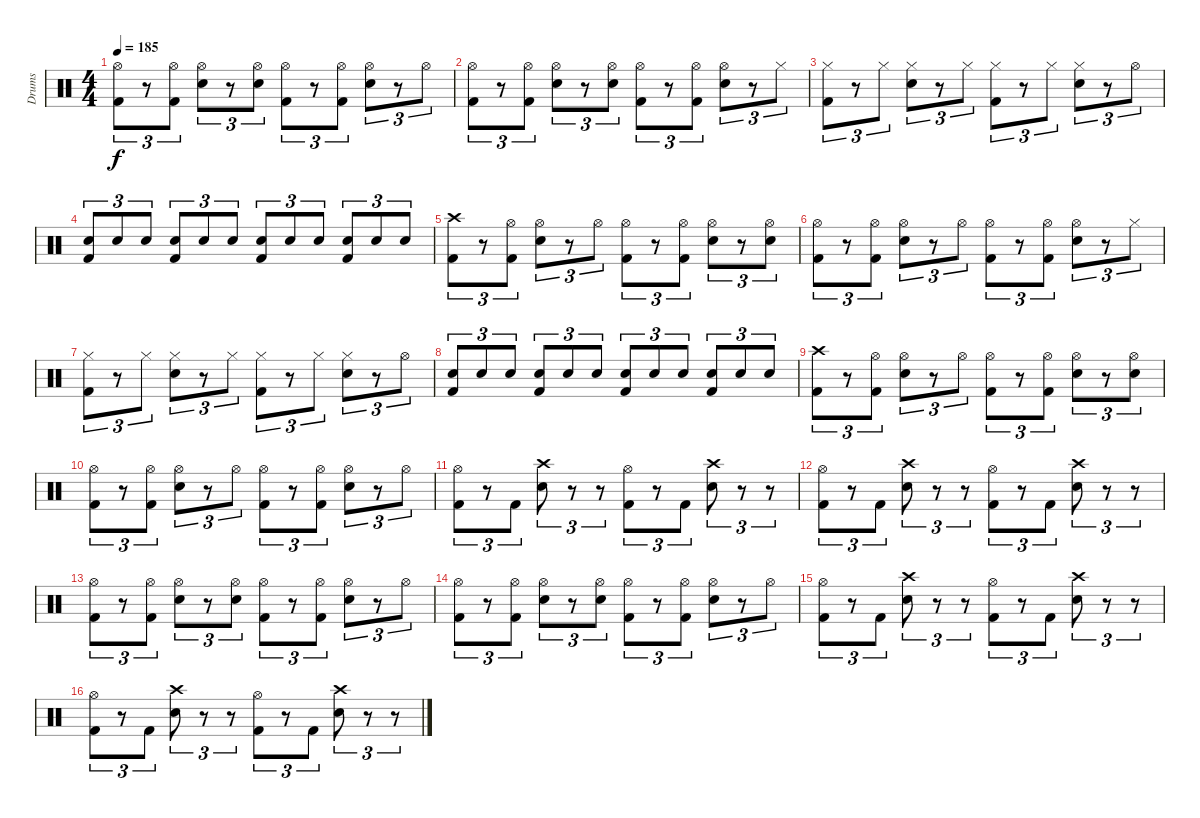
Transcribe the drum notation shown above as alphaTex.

\track ("Drums" "Drums") {instrument percussion}
\staff {score}
\articulation defaults
\ts (4 4)
\tempo 185
\clef neutral
\ks c
("Hi-Hat (open)" "Kick (hit) 2").8{tu (3 2) dy f} r.8{tu (3 2)} ("Hi-Hat (open)" "Kick (hit) 2").8{tu (3 2)} ("Hi-Hat (open)" "Electric Snare (hit)").8{tu (3 2)} r.8{tu (3 2)} ("Hi-Hat (open)" "Electric Snare (hit)").8{tu (3 2)} ("Hi-Hat (open)" "Kick (hit) 2").8{tu (3 2)} r.8{tu (3 2)} ("Hi-Hat (open)" "Kick (hit) 2").8{tu (3 2)} ("Hi-Hat (open)" "Electric Snare (hit)").8{tu (3 2)} r.8{tu (3 2)} "Hi-Hat (open)".8{tu (3 2)} |
("Hi-Hat (open)" "Kick (hit) 2").8{tu (3 2)} r.8{tu (3 2)} ("Hi-Hat (open)" "Kick (hit) 2").8{tu (3 2)} ("Hi-Hat (open)" "Electric Snare (hit)").8{tu (3 2)} r.8{tu (3 2)} ("Hi-Hat (open)" "Electric Snare (hit)").8{tu (3 2)} ("Hi-Hat (open)" "Kick (hit) 2").8{tu (3 2)} r.8{tu (3 2)} ("Hi-Hat (open)" "Kick (hit) 2").8{tu (3 2)} ("Hi-Hat (open)" "Electric Snare (hit)").8{tu (3 2)} r.8{tu (3 2)} "Hi-Hat (closed)".8{tu (3 2)} |
("Hi-Hat (closed)" "Kick (hit) 2").8{tu (3 2)} r.8{tu (3 2)} "Hi-Hat (closed)".8{tu (3 2)} ("Hi-Hat (closed)" "Electric Snare (hit)").8{tu (3 2)} r.8{tu (3 2)} "Hi-Hat (closed)".8{tu (3 2)} ("Hi-Hat (closed)" "Kick (hit) 2").8{tu (3 2)} r.8{tu (3 2)} "Hi-Hat (closed)".8{tu (3 2)} ("Hi-Hat (closed)" "Electric Snare (hit)").8{tu (3 2)} r.8{tu (3 2)} "Hi-Hat (open)".8{tu (3 2)} |
("Electric Snare (hit)" "Kick (hit) 2").8{tu (3 2)} "Electric Snare (hit)".8{tu (3 2)} "Electric Snare (hit)".8{tu (3 2)} ("Electric Snare (hit)" "Kick (hit) 2").8{tu (3 2)} "Electric Snare (hit)".8{tu (3 2)} "Electric Snare (hit)".8{tu (3 2)} ("Electric Snare (hit)" "Kick (hit) 2").8{tu (3 2)} "Electric Snare (hit)".8{tu (3 2)} "Electric Snare (hit)".8{tu (3 2)} ("Electric Snare (hit)" "Kick (hit) 2").8{tu (3 2)} "Electric Snare (hit)".8{tu (3 2)} "Electric Snare (hit)".8{tu (3 2)} |
("Crash high (hit)" "Kick (hit) 2").8{tu (3 2)} r.8{tu (3 2)} ("Hi-Hat (open)" "Kick (hit) 2").8{tu (3 2)} ("Hi-Hat (open)" "Electric Snare (hit)").8{tu (3 2)} r.8{tu (3 2)} "Hi-Hat (open)".8{tu (3 2)} ("Hi-Hat (open)" "Kick (hit) 2").8{tu (3 2)} r.8{tu (3 2)} ("Hi-Hat (open)" "Kick (hit) 2").8{tu (3 2)} ("Hi-Hat (open)" "Electric Snare (hit)").8{tu (3 2)} r.8{tu (3 2)} ("Hi-Hat (open)" "Electric Snare (hit)").8{tu (3 2)} |
("Hi-Hat (open)" "Kick (hit) 2").8{tu (3 2)} r.8{tu (3 2)} ("Hi-Hat (open)" "Kick (hit) 2").8{tu (3 2)} ("Hi-Hat (open)" "Electric Snare (hit)").8{tu (3 2)} r.8{tu (3 2)} "Hi-Hat (open)".8{tu (3 2)} ("Hi-Hat (open)" "Kick (hit) 2").8{tu (3 2)} r.8{tu (3 2)} ("Hi-Hat (open)" "Kick (hit) 2").8{tu (3 2)} ("Hi-Hat (open)" "Electric Snare (hit)").8{tu (3 2)} r.8{tu (3 2)} "Hi-Hat (closed)".8{tu (3 2)} |
("Hi-Hat (closed)" "Kick (hit) 2").8{tu (3 2)} r.8{tu (3 2)} "Hi-Hat (closed)".8{tu (3 2)} ("Hi-Hat (closed)" "Electric Snare (hit)").8{tu (3 2)} r.8{tu (3 2)} "Hi-Hat (closed)".8{tu (3 2)} ("Hi-Hat (closed)" "Kick (hit) 2").8{tu (3 2)} r.8{tu (3 2)} "Hi-Hat (closed)".8{tu (3 2)} ("Hi-Hat (closed)" "Electric Snare (hit)").8{tu (3 2)} r.8{tu (3 2)} "Hi-Hat (open)".8{tu (3 2)} |
("Electric Snare (hit)" "Kick (hit) 2").8{tu (3 2)} "Electric Snare (hit)".8{tu (3 2)} "Electric Snare (hit)".8{tu (3 2)} ("Electric Snare (hit)" "Kick (hit) 2").8{tu (3 2)} "Electric Snare (hit)".8{tu (3 2)} "Electric Snare (hit)".8{tu (3 2)} ("Electric Snare (hit)" "Kick (hit) 2").8{tu (3 2)} "Electric Snare (hit)".8{tu (3 2)} "Electric Snare (hit)".8{tu (3 2)} ("Electric Snare (hit)" "Kick (hit) 2").8{tu (3 2)} "Electric Snare (hit)".8{tu (3 2)} "Electric Snare (hit)".8{tu (3 2)} |
("Crash high (hit)" "Kick (hit) 2").8{tu (3 2)} r.8{tu (3 2)} ("Hi-Hat (open)" "Kick (hit) 2").8{tu (3 2)} ("Hi-Hat (open)" "Electric Snare (hit)").8{tu (3 2)} r.8{tu (3 2)} "Hi-Hat (open)".8{tu (3 2)} ("Hi-Hat (open)" "Kick (hit) 2").8{tu (3 2)} r.8{tu (3 2)} ("Hi-Hat (open)" "Kick (hit) 2").8{tu (3 2)} ("Hi-Hat (open)" "Electric Snare (hit)").8{tu (3 2)} r.8{tu (3 2)} ("Hi-Hat (open)" "Electric Snare (hit)").8{tu (3 2)} |
("Hi-Hat (open)" "Kick (hit) 2").8{tu (3 2)} r.8{tu (3 2)} ("Hi-Hat (open)" "Kick (hit) 2").8{tu (3 2)} ("Hi-Hat (open)" "Electric Snare (hit)").8{tu (3 2)} r.8{tu (3 2)} "Hi-Hat (open)".8{tu (3 2)} ("Hi-Hat (open)" "Kick (hit) 2").8{tu (3 2)} r.8{tu (3 2)} ("Hi-Hat (open)" "Kick (hit) 2").8{tu (3 2)} ("Hi-Hat (open)" "Electric Snare (hit)").8{tu (3 2)} r.8{tu (3 2)} "Hi-Hat (open)".8{tu (3 2)} |
("Hi-Hat (open)" "Kick (hit) 2").8{tu (3 2)} r.8{tu (3 2)} "Kick (hit) 2".8{tu (3 2)} ("Crash high (hit)" "Electric Snare (hit)").8{tu (3 2)} r.8{tu (3 2)} r.8{tu (3 2)} ("Hi-Hat (open)" "Kick (hit) 2").8{tu (3 2)} r.8{tu (3 2)} "Kick (hit) 2".8{tu (3 2)} ("Crash high (hit)" "Electric Snare (hit)").8{tu (3 2)} r.8{tu (3 2)} r.8{tu (3 2)} |
("Hi-Hat (open)" "Kick (hit) 2").8{tu (3 2)} r.8{tu (3 2)} "Kick (hit) 2".8{tu (3 2)} ("Crash high (hit)" "Electric Snare (hit)").8{tu (3 2)} r.8{tu (3 2)} r.8{tu (3 2)} ("Hi-Hat (open)" "Kick (hit) 2").8{tu (3 2)} r.8{tu (3 2)} "Kick (hit) 2".8{tu (3 2)} ("Crash high (hit)" "Electric Snare (hit)").8{tu (3 2)} r.8{tu (3 2)} r.8{tu (3 2)} |
("Hi-Hat (open)" "Kick (hit) 2").8{tu (3 2)} r.8{tu (3 2)} ("Hi-Hat (open)" "Kick (hit) 2").8{tu (3 2)} ("Hi-Hat (open)" "Electric Snare (hit)").8{tu (3 2)} r.8{tu (3 2)} ("Hi-Hat (open)" "Electric Snare (hit)").8{tu (3 2)} ("Hi-Hat (open)" "Kick (hit) 2").8{tu (3 2)} r.8{tu (3 2)} ("Hi-Hat (open)" "Kick (hit) 2").8{tu (3 2)} ("Hi-Hat (open)" "Electric Snare (hit)").8{tu (3 2)} r.8{tu (3 2)} "Hi-Hat (open)".8{tu (3 2)} |
("Hi-Hat (open)" "Kick (hit) 2").8{tu (3 2)} r.8{tu (3 2)} ("Hi-Hat (open)" "Kick (hit) 2").8{tu (3 2)} ("Hi-Hat (open)" "Electric Snare (hit)").8{tu (3 2)} r.8{tu (3 2)} ("Hi-Hat (open)" "Electric Snare (hit)").8{tu (3 2)} ("Hi-Hat (open)" "Kick (hit) 2").8{tu (3 2)} r.8{tu (3 2)} ("Hi-Hat (open)" "Kick (hit) 2").8{tu (3 2)} ("Hi-Hat (open)" "Electric Snare (hit)").8{tu (3 2)} r.8{tu (3 2)} "Hi-Hat (open)".8{tu (3 2)} |
("Hi-Hat (open)" "Kick (hit) 2").8{tu (3 2)} r.8{tu (3 2)} "Kick (hit) 2".8{tu (3 2)} ("Crash high (hit)" "Electric Snare (hit)").8{tu (3 2)} r.8{tu (3 2)} r.8{tu (3 2)} ("Hi-Hat (open)" "Kick (hit) 2").8{tu (3 2)} r.8{tu (3 2)} "Kick (hit) 2".8{tu (3 2)} ("Crash high (hit)" "Electric Snare (hit)").8{tu (3 2)} r.8{tu (3 2)} r.8{tu (3 2)} |
("Hi-Hat (open)" "Kick (hit) 2").8{tu (3 2)} r.8{tu (3 2)} "Kick (hit) 2".8{tu (3 2)} ("Crash high (hit)" "Electric Snare (hit)").8{tu (3 2)} r.8{tu (3 2)} r.8{tu (3 2)} ("Hi-Hat (open)" "Kick (hit) 2").8{tu (3 2)} r.8{tu (3 2)} "Kick (hit) 2".8{tu (3 2)} ("Crash high (hit)" "Electric Snare (hit)").8{tu (3 2)} r.8{tu (3 2)} r.8{tu (3 2)}
